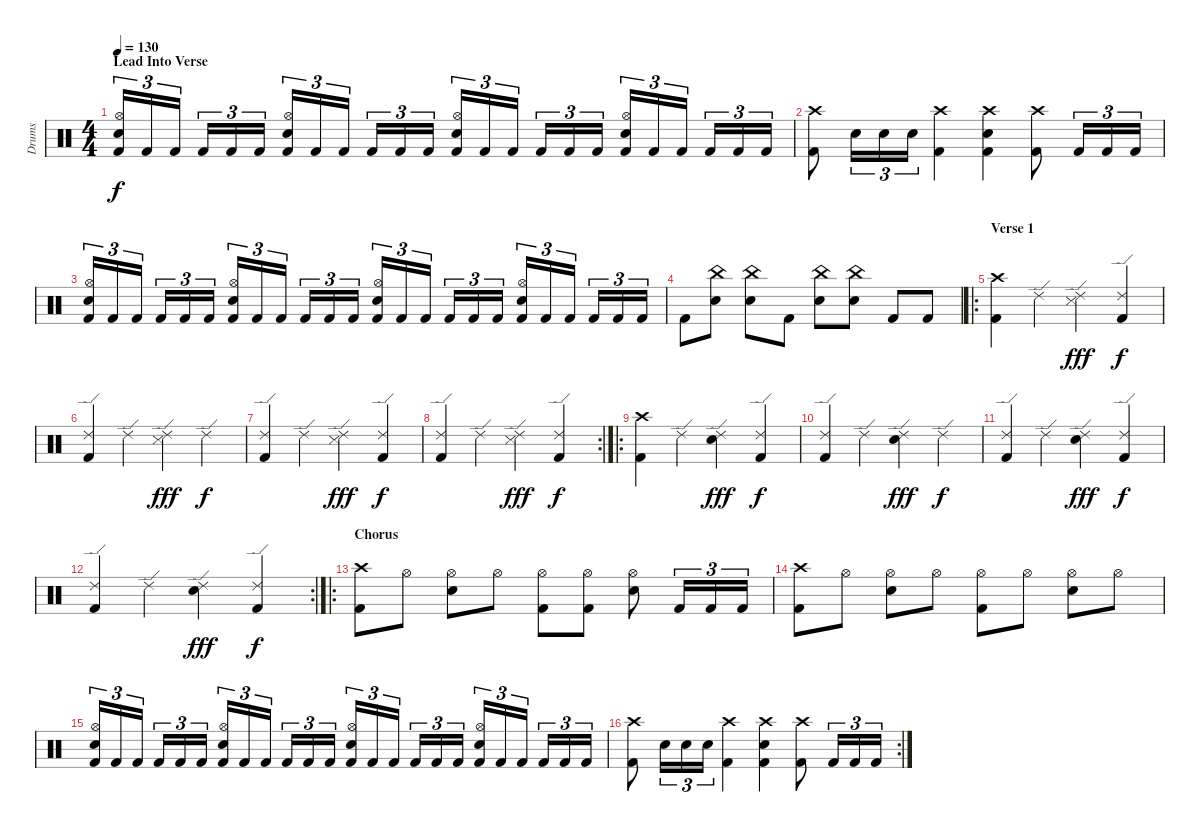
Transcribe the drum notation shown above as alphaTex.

\track ("Drums" "Drums") {instrument percussion}
\staff {score}
\articulation defaults
\ts (4 4)
\section ("" "Lead Into Verse ")
\tempo 130
\clef neutral
\ks c
("Kick (hit) 2" "Hi-Hat (open)" "Electric Snare (hit)").16{tu (3 2) dy f} "Kick (hit) 2".16{tu (3 2)} "Kick (hit) 2".16{tu (3 2)} "Kick (hit) 2".16{tu (3 2)} "Kick (hit) 2".16{tu (3 2)} "Kick (hit) 2".16{tu (3 2)} ("Kick (hit) 2" "Hi-Hat (open)" "Electric Snare (hit)").16{tu (3 2)} "Kick (hit) 2".16{tu (3 2)} "Kick (hit) 2".16{tu (3 2)} "Kick (hit) 2".16{tu (3 2)} "Kick (hit) 2".16{tu (3 2)} "Kick (hit) 2".16{tu (3 2)} ("Kick (hit) 2" "Hi-Hat (open)" "Electric Snare (hit)").16{tu (3 2)} "Kick (hit) 2".16{tu (3 2)} "Kick (hit) 2".16{tu (3 2)} "Kick (hit) 2".16{tu (3 2)} "Kick (hit) 2".16{tu (3 2)} "Kick (hit) 2".16{tu (3 2)} ("Kick (hit) 2" "Hi-Hat (open)" "Electric Snare (hit)").16{tu (3 2)} "Kick (hit) 2".16{tu (3 2)} "Kick (hit) 2".16{tu (3 2)} "Kick (hit) 2".16{tu (3 2)} "Kick (hit) 2".16{tu (3 2)} "Kick (hit) 2".16{tu (3 2)} |
("Crash high (hit)" "Kick (hit) 2").8 "Electric Snare (hit)".16{tu (3 2)} "Electric Snare (hit)".16{tu (3 2)} "Electric Snare (hit)".16{tu (3 2)} ("Crash high (hit)" "Kick (hit) 2").4 ("Crash high (hit)" "Kick (hit) 2" "Electric Snare (hit)").4 ("Crash high (hit)" "Kick (hit) 2").8 "Kick (hit) 2".16{tu (3 2)} "Kick (hit) 2".16{tu (3 2)} "Kick (hit) 2".16{tu (3 2)} |
("Kick (hit) 2" "Hi-Hat (open)" "Electric Snare (hit)").16{tu (3 2)} "Kick (hit) 2".16{tu (3 2)} "Kick (hit) 2".16{tu (3 2)} "Kick (hit) 2".16{tu (3 2)} "Kick (hit) 2".16{tu (3 2)} "Kick (hit) 2".16{tu (3 2)} ("Kick (hit) 2" "Hi-Hat (open)" "Electric Snare (hit)").16{tu (3 2)} "Kick (hit) 2".16{tu (3 2)} "Kick (hit) 2".16{tu (3 2)} "Kick (hit) 2".16{tu (3 2)} "Kick (hit) 2".16{tu (3 2)} "Kick (hit) 2".16{tu (3 2)} ("Kick (hit) 2" "Hi-Hat (open)" "Electric Snare (hit)").16{tu (3 2)} "Kick (hit) 2".16{tu (3 2)} "Kick (hit) 2".16{tu (3 2)} "Kick (hit) 2".16{tu (3 2)} "Kick (hit) 2".16{tu (3 2)} "Kick (hit) 2".16{tu (3 2)} ("Kick (hit) 2" "Hi-Hat (open)" "Electric Snare (hit)").16{tu (3 2)} "Kick (hit) 2".16{tu (3 2)} "Kick (hit) 2".16{tu (3 2)} "Kick (hit) 2".16{tu (3 2)} "Kick (hit) 2".16{tu (3 2)} "Kick (hit) 2".16{tu (3 2)} |
"Kick (hit) 2".8 ("Electric Snare (hit)" "China (hit)").8 ("Electric Snare (hit)" "China (hit)").8 "Kick (hit) 2".8 ("Electric Snare (hit)" "China (hit)").8 ("Electric Snare (hit)" "China (hit)").8 "Kick (hit) 2".8 "Kick (hit) 2".8 |
\ro
\section ("" "Verse 1")
("Crash high (hit)" "Kick (hit) 2").4 "Ride (edge) 2".4 ("Ride (edge) 2" "Snare (side stick) 3").4{dy fff} ("Ride (edge) 2" "Kick (hit) 2").4{dy f} |
("Ride (edge) 2" "Kick (hit) 2").4 "Ride (edge) 2".4 ("Ride (edge) 2" "Snare (side stick) 3").4{dy fff} "Ride (edge) 2".4{dy f} |
("Ride (edge) 2" "Kick (hit) 2").4 "Ride (edge) 2".4 ("Ride (edge) 2" "Snare (side stick) 3").4{dy fff} ("Ride (edge) 2" "Kick (hit) 2").4{dy f} |
\rc 2
("Ride (edge) 2" "Kick (hit) 2").4 "Ride (edge) 2".4 ("Ride (edge) 2" "Snare (side stick) 3").4{dy fff} ("Ride (edge) 2" "Kick (hit) 2").4{dy f} |
\ro
("Crash high (hit)" "Kick (hit) 2").4 "Ride (edge) 2".4 ("Ride (edge) 2" "Electric Snare (hit)").4{dy fff} ("Ride (edge) 2" "Kick (hit) 2").4{dy f} |
("Ride (edge) 2" "Kick (hit) 2").4 "Ride (edge) 2".4 ("Ride (edge) 2" "Electric Snare (hit)").4{dy fff} "Ride (edge) 2".4{dy f} |
("Ride (edge) 2" "Kick (hit) 2").4 "Ride (edge) 2".4 ("Ride (edge) 2" "Electric Snare (hit)").4{dy fff} ("Ride (edge) 2" "Kick (hit) 2").4{dy f} |
\rc 2
("Ride (edge) 2" "Kick (hit) 2").4 "Ride (edge) 2".4 ("Ride (edge) 2" "Electric Snare (hit)").4{dy fff} ("Ride (edge) 2" "Kick (hit) 2").4{dy f} |
\ro
\section ("" "Chorus")
("Crash high (hit)" "Kick (hit) 2").8 "Hi-Hat (open)".8 ("Hi-Hat (open)" "Electric Snare (hit)").8 "Hi-Hat (open)".8 ("Hi-Hat (open)" "Kick (hit) 2").8 ("Hi-Hat (open)" "Kick (hit) 2").8 ("Hi-Hat (open)" "Electric Snare (hit)").8 "Kick (hit) 2".16{tu (3 2)} "Kick (hit) 2".16{tu (3 2)} "Kick (hit) 2".16{tu (3 2)} |
("Crash high (hit)" "Kick (hit) 2").8 "Hi-Hat (open)".8 ("Hi-Hat (open)" "Electric Snare (hit)").8 "Hi-Hat (open)".8 ("Hi-Hat (open)" "Kick (hit) 2").8 "Hi-Hat (open)".8 ("Hi-Hat (open)" "Electric Snare (hit)").8 "Hi-Hat (open)".8 |
("Kick (hit) 2" "Electric Snare (hit)" "Hi-Hat (open)").16{tu (3 2)} "Kick (hit) 2".16{tu (3 2)} "Kick (hit) 2".16{tu (3 2)} "Kick (hit) 2".16{tu (3 2)} "Kick (hit) 2".16{tu (3 2)} "Kick (hit) 2".16{tu (3 2)} ("Kick (hit) 2" "Electric Snare (hit)" "Hi-Hat (open)").16{tu (3 2)} "Kick (hit) 2".16{tu (3 2)} "Kick (hit) 2".16{tu (3 2)} "Kick (hit) 2".16{tu (3 2)} "Kick (hit) 2".16{tu (3 2)} "Kick (hit) 2".16{tu (3 2)} ("Kick (hit) 2" "Electric Snare (hit)" "Hi-Hat (open)").16{tu (3 2)} "Kick (hit) 2".16{tu (3 2)} "Kick (hit) 2".16{tu (3 2)} "Kick (hit) 2".16{tu (3 2)} "Kick (hit) 2".16{tu (3 2)} "Kick (hit) 2".16{tu (3 2)} ("Kick (hit) 2" "Electric Snare (hit)" "Hi-Hat (open)").16{tu (3 2)} "Kick (hit) 2".16{tu (3 2)} "Kick (hit) 2".16{tu (3 2)} "Kick (hit) 2".16{tu (3 2)} "Kick (hit) 2".16{tu (3 2)} "Kick (hit) 2".16{tu (3 2)} |
\rc 2
("Crash high (hit)" "Kick (hit) 2").8 "Electric Snare (hit)".16{tu (3 2)} "Electric Snare (hit)".16{tu (3 2)} "Electric Snare (hit)".16{tu (3 2)} ("Crash high (hit)" "Kick (hit) 2").4 ("Crash high (hit)" "Kick (hit) 2" "Electric Snare (hit)").4 ("Crash high (hit)" "Kick (hit) 2").8 "Kick (hit) 2".16{tu (3 2)} "Kick (hit) 2".16{tu (3 2)} "Kick (hit) 2".16{tu (3 2)}
